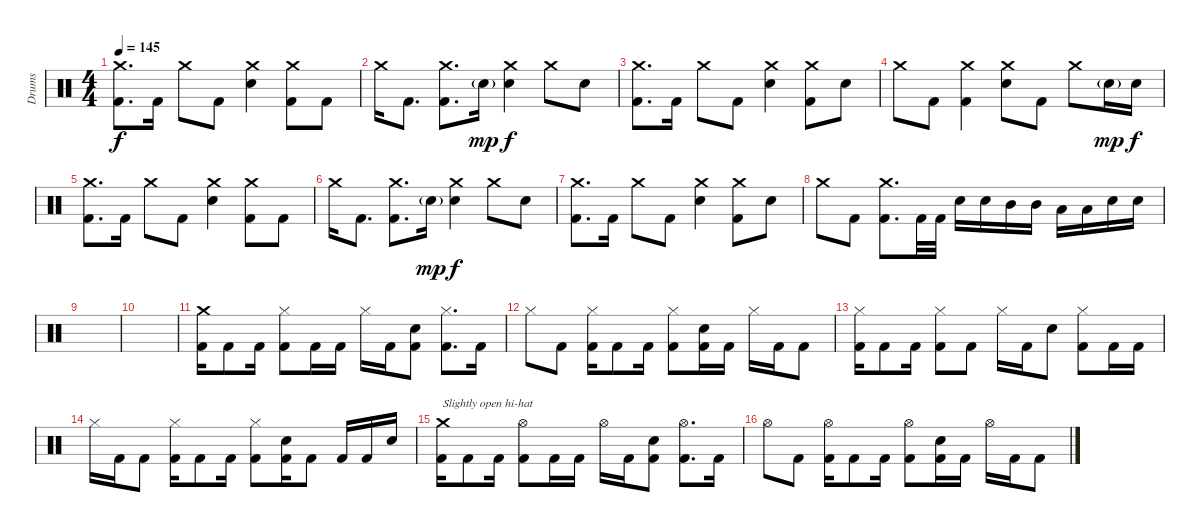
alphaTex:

\track ("Drums" "Drums") {instrument percussion}
\staff {score}
\articulation defaults
\ts (4 4)
\tempo 145
\clef neutral
\ks c
("Crash medium (hit)" "Kick (hit) 2").8{d dy f} "Kick (hit) 2".16 "Crash medium (hit)".8 "Kick (hit) 2".8 ("Crash medium (hit)" "Snare (hit) 2").4 ("Crash medium (hit)" "Kick (hit) 2").8 "Kick (hit) 2".8 |
"Crash medium (hit)".16 "Kick (hit) 2".8{d} ("Crash medium (hit)" "Kick (hit) 2").8{d} "Snare (hit) 2"{g}.16{dy mp} ("Crash medium (hit)" "Snare (hit) 2").4{dy f} "Crash medium (hit)".8 "Snare (hit) 2".8 |
("Crash medium (hit)" "Kick (hit) 2").8{d} "Kick (hit) 2".16 "Crash medium (hit)".8 "Kick (hit) 2".8 ("Crash medium (hit)" "Snare (hit) 2").4 ("Crash medium (hit)" "Kick (hit) 2").8 "Snare (hit) 2".8 |
"Crash medium (hit)".8 "Kick (hit) 2".8 ("Crash medium (hit)" "Kick (hit) 2").4 ("Crash medium (hit)" "Snare (hit) 2").8 "Kick (hit) 2".8 "Crash medium (hit)".8 "Snare (hit) 2"{g}.16{dy mp} "Snare (hit) 2".16{dy f} |
("Crash medium (hit)" "Kick (hit) 2").8{d} "Kick (hit) 2".16 "Crash medium (hit)".8 "Kick (hit) 2".8 ("Crash medium (hit)" "Snare (hit) 2").4 ("Crash medium (hit)" "Kick (hit) 2").8 "Kick (hit) 2".8 |
"Crash medium (hit)".16 "Kick (hit) 2".8{d} ("Crash medium (hit)" "Kick (hit) 2").8{d} "Snare (hit) 2"{g}.16{dy mp} ("Crash medium (hit)" "Snare (hit) 2").4{dy f} "Crash medium (hit)".8 "Snare (hit) 2".8 |
("Crash medium (hit)" "Kick (hit) 2").8{d} "Kick (hit) 2".16 "Crash medium (hit)".8 "Kick (hit) 2".8 ("Crash medium (hit)" "Snare (hit) 2").4 ("Crash medium (hit)" "Kick (hit) 2").8 "Snare (hit) 2".8 |
"Crash medium (hit)".8 "Kick (hit) 2".8 ("Crash medium (hit)" "Kick (hit) 2").8{d} "Kick (hit) 2".32 "Kick (hit) 2".32 "Snare (hit) 2".16 "Snare (hit) 2".16 "Mid Tom (hit)".16 "Mid Tom (hit)".16 "Low Tom (hit)".16 "Low Tom (hit)".16 "Snare (hit) 2".16 "Snare (hit) 2".16 |
|
|
("Crash medium (hit)" "Kick (hit) 2").16 "Kick (hit) 2".8 "Kick (hit) 2".16 ("Hi-Hat (closed)" "Kick (hit) 2").8 "Kick (hit) 2".16 "Kick (hit) 2".16 "Hi-Hat (closed)".16 "Kick (hit) 2".16 ("Snare (hit) 2" "Kick (hit) 2").8 ("Hi-Hat (closed)" "Kick (hit) 2").8{d} "Kick (hit) 2".16 |
"Hi-Hat (closed)".8 "Kick (hit) 2".8 ("Hi-Hat (closed)" "Kick (hit) 2").16 "Kick (hit) 2".8 "Kick (hit) 2".16 ("Hi-Hat (closed)" "Kick (hit) 2").8 ("Snare (hit) 2" "Kick (hit) 2").16 "Kick (hit) 2".16 "Hi-Hat (closed)".16 "Kick (hit) 2".16 "Kick (hit) 2".8 |
("Hi-Hat (closed)" "Kick (hit) 2").16 "Kick (hit) 2".8 "Kick (hit) 2".16 ("Hi-Hat (closed)" "Kick (hit) 2").8 "Kick (hit) 2".8 "Hi-Hat (closed)".16 "Kick (hit) 2".16 "Snare (hit) 2".8 ("Hi-Hat (closed)" "Kick (hit) 2").8 "Kick (hit) 2".16 "Kick (hit) 2".16 |
"Hi-Hat (closed)".16 "Kick (hit) 2".16 "Kick (hit) 2".8 ("Hi-Hat (closed)" "Kick (hit) 2").16 "Kick (hit) 2".8 "Kick (hit) 2".16 ("Hi-Hat (closed)" "Kick (hit) 2").8 ("Snare (hit) 2" "Kick (hit) 2").16 "Kick (hit) 2".8 "Kick (hit) 2".16 "Kick (hit) 2".16 "Snare (hit) 2".16 |
("Crash medium (hit)" "Kick (hit) 2").16{txt "Slightly open hi-hat"} "Kick (hit) 2".8 "Kick (hit) 2".16 ("Hi-Hat (open)" "Kick (hit) 2").8 "Kick (hit) 2".16 "Kick (hit) 2".16 "Hi-Hat (open)".16 "Kick (hit) 2".16 ("Snare (hit) 2" "Kick (hit) 2").8 ("Hi-Hat (open)" "Kick (hit) 2").8{d} "Kick (hit) 2".16 |
"Hi-Hat (open)".8 "Kick (hit) 2".8 ("Hi-Hat (open)" "Kick (hit) 2").16 "Kick (hit) 2".8 "Kick (hit) 2".16 ("Hi-Hat (open)" "Kick (hit) 2").8 ("Snare (hit) 2" "Kick (hit) 2").16 "Kick (hit) 2".16 "Hi-Hat (open)".16 "Kick (hit) 2".16 "Kick (hit) 2".8
